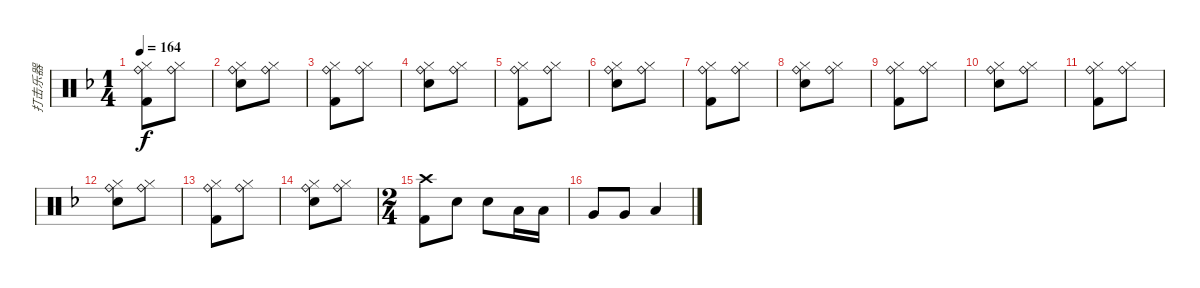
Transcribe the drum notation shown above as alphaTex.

\track ("打击乐器" "打击乐器") {instrument percussion}
\staff {score}
\articulation defaults
\ts (1 4)
\tempo 164
\clef neutral
\ks f
("Hi-Hat (closed)" "Ride (bell)" "Kick (hit) 2").8{dy f} ("Hi-Hat (closed)" "Ride (bell)").8 |
("Hi-Hat (closed)" "Ride (bell)" "Snare (hit) 2").8 ("Hi-Hat (closed)" "Ride (bell)").8 |
("Hi-Hat (closed)" "Ride (bell)" "Kick (hit) 2").8 ("Hi-Hat (closed)" "Ride (bell)").8 |
("Hi-Hat (closed)" "Ride (bell)" "Snare (hit) 2").8 ("Hi-Hat (closed)" "Ride (bell)").8 |
("Hi-Hat (closed)" "Ride (bell)" "Kick (hit) 2").8 ("Hi-Hat (closed)" "Ride (bell)").8 |
("Hi-Hat (closed)" "Ride (bell)" "Snare (hit) 2").8 ("Hi-Hat (closed)" "Ride (bell)").8 |
("Hi-Hat (closed)" "Ride (bell)" "Kick (hit) 2").8 ("Hi-Hat (closed)" "Ride (bell)").8 |
("Hi-Hat (closed)" "Ride (bell)" "Snare (hit) 2").8 ("Hi-Hat (closed)" "Ride (bell)").8 |
("Hi-Hat (closed)" "Ride (bell)" "Kick (hit) 2").8 ("Hi-Hat (closed)" "Ride (bell)").8 |
("Hi-Hat (closed)" "Ride (bell)" "Snare (hit) 2").8 ("Hi-Hat (closed)" "Ride (bell)").8 |
("Hi-Hat (closed)" "Ride (bell)" "Kick (hit) 2").8 ("Hi-Hat (closed)" "Ride (bell)").8 |
("Hi-Hat (closed)" "Ride (bell)" "Snare (hit) 2").8 ("Hi-Hat (closed)" "Ride (bell)").8 |
("Hi-Hat (closed)" "Ride (bell)" "Kick (hit) 2").8 ("Hi-Hat (closed)" "Ride (bell)").8 |
("Hi-Hat (closed)" "Ride (bell)" "Snare (hit) 2").8 ("Hi-Hat (closed)" "Ride (bell)").8 |
\ts (2 4)
("Crash high (hit)" "Kick (hit) 2").8 "Snare (hit) 2".8 "Snare (hit) 2".8 "Low Tom (hit)".16 "Low Tom (hit)".16 |
"Very Low Tom (hit)".8 "Very Low Tom (hit)".8 "Low Floor Tom (hit)".4
